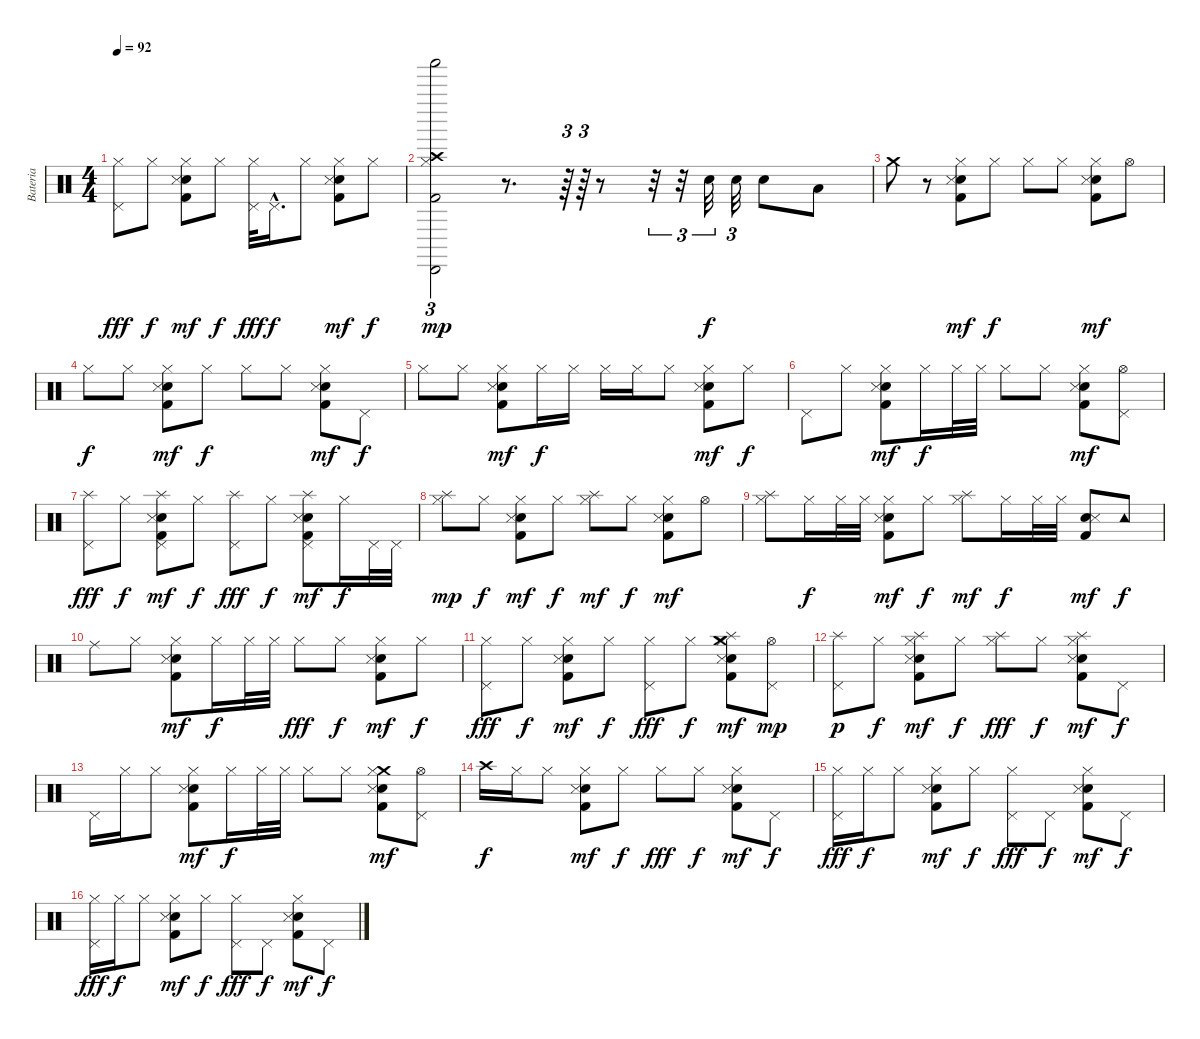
\track ("Bateria" "Bateria") {instrument percussion}
\staff {score}
\articulation defaults
\ts (4 4)
\tempo 92
\clef neutral
\ks c
("Hi-Hat (closed)" "Pedal Hi-Hat (hit)").8{dy fff} "Hi-Hat (closed)".8{dy f} ("Hi-Hat (closed)" "Electric Snare (hit)" "Snare (side stick) 3" "Kick (hit) 2").8{dy mf} "Hi-Hat (closed)".8{dy f} ("Hi-Hat (closed)" "Pedal Hi-Hat (hit)").32{dy fff} "Pedal Hi-Hat (hit)"{hac}.16{d dy f} "Hi-Hat (closed)".8 ("Hi-Hat (closed)" "Electric Snare (hit)" "Snare (side stick) 3" "Kick (hit) 2").8{dy mf} "Hi-Hat (closed)".8{dy f} |
("Hi-Hat (closed)" "Cabasa (hit)" "Shaker (hit)" "Crash high (hit)" "Kick (hit) 2").2{tu (3 2) dy mp} r.8{d} r.64{tu (3 2)} r.64{tu (3 2)} r.8 r.32{tu (3 2)} r.32{tu (3 2)} "Electric Snare (hit)".32{tu (3 2) dy f} "Electric Snare (hit)".32{tu (3 2)} "Electric Snare (hit)".8 "Low Tom (hit)".8 |
"Crash medium (hit)".8 r.8 ("Hi-Hat (closed)" "Electric Snare (hit)" "Snare (side stick) 3" "Kick (hit) 2").8{dy mf} "Hi-Hat (closed)".8{dy f} "Hi-Hat (closed)".8 "Hi-Hat (closed)".8 ("Hi-Hat (closed)" "Electric Snare (hit)" "Snare (side stick) 3" "Kick (hit) 2").8{dy mf} "Hi-Hat (open)".8 |
"Hi-Hat (closed)".8{dy f} "Hi-Hat (closed)".8 ("Hi-Hat (closed)" "Electric Snare (hit)" "Snare (side stick) 3" "Kick (hit) 2").8{dy mf} "Hi-Hat (closed)".8{dy f} "Hi-Hat (closed)".8 "Hi-Hat (closed)".8 ("Hi-Hat (closed)" "Electric Snare (hit)" "Snare (side stick) 3" "Kick (hit) 2").8{dy mf} "Pedal Hi-Hat (hit)".8{dy f} |
"Hi-Hat (closed)".8 "Hi-Hat (closed)".8 ("Hi-Hat (closed)" "Electric Snare (hit)" "Snare (side stick) 3" "Kick (hit) 2").8{dy mf} "Hi-Hat (closed)".16{dy f} "Hi-Hat (closed)".16 "Hi-Hat (closed)".16 "Hi-Hat (closed)".16 "Hi-Hat (closed)".8 ("Hi-Hat (closed)" "Electric Snare (hit)" "Snare (side stick) 3" "Kick (hit) 2").8{dy mf} "Hi-Hat (closed)".8{dy f} |
"Pedal Hi-Hat (hit)".8 "Hi-Hat (closed)".8 ("Hi-Hat (closed)" "Electric Snare (hit)" "Snare (side stick) 3" "Kick (hit) 2").8{dy mf} "Hi-Hat (closed)".16{dy f} "Hi-Hat (closed)".32 "Hi-Hat (closed)".32 "Hi-Hat (closed)".8 "Hi-Hat (closed)".8 ("Hi-Hat (closed)" "Electric Snare (hit)" "Snare (side stick) 3" "Kick (hit) 2").8{dy mf} ("Pedal Hi-Hat (hit)" "Hi-Hat (open)").8 |
("Splash (hit)" "Pedal Hi-Hat (hit)").8{dy fff} "Hi-Hat (closed)".8{dy f} ("Splash (hit)" "Pedal Hi-Hat (hit)" "Electric Snare (hit)" "Snare (side stick) 3" "Kick (hit) 2").8{dy mf} "Hi-Hat (closed)".8{dy f} ("Splash (hit)" "Pedal Hi-Hat (hit)").8{dy fff} "Hi-Hat (closed)".8{dy f} ("Splash (hit)" "Pedal Hi-Hat (hit)" "Electric Snare (hit)" "Snare (side stick) 3" "Kick (hit) 2").8{dy mf} "Hi-Hat (closed)".16{dy f} "Pedal Hi-Hat (hit)".32 "Pedal Hi-Hat (hit)".32 |
("Splash (hit)" "Hi-Hat (closed)").8{dy mp} "Hi-Hat (closed)".8{dy f} ("Hi-Hat (closed)" "Electric Snare (hit)" "Snare (side stick) 3" "Kick (hit) 2").8{dy mf} "Hi-Hat (closed)".8{dy f} ("Splash (hit)" "Hi-Hat (closed)").8{dy mf} "Hi-Hat (closed)".8{dy f} ("Hi-Hat (closed)" "Electric Snare (hit)" "Snare (side stick) 3" "Kick (hit) 2").8{dy mf} "Hi-Hat (open)".8 |
("Splash (hit)" "Hi-Hat (closed)").8 "Hi-Hat (closed)".16{dy f} "Hi-Hat (closed)".32 "Hi-Hat (closed)".32 ("Hi-Hat (closed)" "Electric Snare (hit)" "Snare (side stick) 3" "Kick (hit) 2").8{dy mf} "Hi-Hat (closed)".8{dy f} ("Splash (hit)" "Hi-Hat (closed)").8{dy mf} "Hi-Hat (closed)".16{dy f} "Hi-Hat (closed)".32 "Hi-Hat (closed)".32 ("Electric Snare (hit)" "Snare (side stick) 3" "Kick (hit) 2").8{dy mf} "Tambourine (hit)".8{dy f} |
"Ride (middle)".8 "Hi-Hat (closed)".8 ("Hi-Hat (closed)" "Electric Snare (hit)" "Snare (side stick) 3" "Kick (hit) 2").8{dy mf} "Hi-Hat (closed)".16{dy f} "Hi-Hat (closed)".32 "Hi-Hat (closed)".32 "Hi-Hat (closed)".8{dy fff} "Hi-Hat (closed)".8{dy f} ("Hi-Hat (closed)" "Electric Snare (hit)" "Snare (side stick) 3" "Kick (hit) 2").8{dy mf} "Hi-Hat (closed)".8{dy f} |
("Hi-Hat (closed)" "Pedal Hi-Hat (hit)").8{dy fff} "Hi-Hat (closed)".8{dy f} ("Hi-Hat (closed)" "Electric Snare (hit)" "Snare (side stick) 3" "Kick (hit) 2").8{dy mf} "Hi-Hat (closed)".8{dy f} ("Hi-Hat (closed)" "Pedal Hi-Hat (hit)").8{dy fff} "Hi-Hat (closed)".8{dy f} ("Crash medium (hit)" "Hi-Hat (closed)" "Splash (hit)" "Electric Snare (hit)" "Snare (side stick) 3" "Kick (hit) 2").8{dy mf} ("Pedal Hi-Hat (hit)" "Hi-Hat (open)").8{dy mp} |
("Splash (hit)" "Pedal Hi-Hat (hit)").8{dy p} "Hi-Hat (closed)".8{dy f} ("Splash (hit)" "Hi-Hat (closed)" "Electric Snare (hit)" "Snare (side stick) 3" "Kick (hit) 2").8{dy mf} "Hi-Hat (closed)".8{dy f} ("Splash (hit)" "Hi-Hat (closed)").8{dy fff} "Hi-Hat (closed)".8{dy f} ("Splash (hit)" "Hi-Hat (closed)" "Electric Snare (hit)" "Snare (side stick) 3" "Kick (hit) 2").8{dy mf} "Pedal Hi-Hat (hit)".8{dy f} |
"Pedal Hi-Hat (hit)".16 "Hi-Hat (closed)".16 "Hi-Hat (closed)".8 ("Hi-Hat (closed)" "Electric Snare (hit)" "Snare (side stick) 3" "Kick (hit) 2").8{dy mf} "Hi-Hat (closed)".16{dy f} "Hi-Hat (closed)".32 "Hi-Hat (closed)".32 "Hi-Hat (closed)".8 "Hi-Hat (closed)".8 ("Crash medium (hit)" "Hi-Hat (closed)" "Electric Snare (hit)" "Snare (side stick) 3" "Kick (hit) 2").8{dy mf} ("Pedal Hi-Hat (hit)" "Hi-Hat (open)").8 |
"Crash high (hit)".16{dy f} "Hi-Hat (closed)".16 "Hi-Hat (closed)".8 ("Hi-Hat (closed)" "Electric Snare (hit)" "Snare (side stick) 3" "Kick (hit) 2").8{dy mf} "Hi-Hat (closed)".8{dy f} "Hi-Hat (closed)".8{dy fff} "Hi-Hat (closed)".8{dy f} ("Hi-Hat (closed)" "Electric Snare (hit)" "Snare (side stick) 3" "Kick (hit) 2").8{dy mf} "Pedal Hi-Hat (hit)".8{dy f} |
("Hi-Hat (closed)" "Pedal Hi-Hat (hit)").16{dy fff} "Hi-Hat (closed)".16{dy f} "Hi-Hat (closed)".8 ("Hi-Hat (closed)" "Electric Snare (hit)" "Snare (side stick) 3" "Kick (hit) 2").8{dy mf} "Hi-Hat (closed)".8{dy f} ("Hi-Hat (closed)" "Pedal Hi-Hat (hit)").8{dy fff} "Pedal Hi-Hat (hit)".8{dy f} ("Hi-Hat (closed)" "Electric Snare (hit)" "Snare (side stick) 3" "Kick (hit) 2").8{dy mf} "Pedal Hi-Hat (hit)".8{dy f} |
("Hi-Hat (closed)" "Pedal Hi-Hat (hit)").16{dy fff} "Hi-Hat (closed)".16{dy f} "Hi-Hat (closed)".8 ("Hi-Hat (closed)" "Electric Snare (hit)" "Snare (side stick) 3" "Kick (hit) 2").8{dy mf} "Hi-Hat (closed)".8{dy f} ("Hi-Hat (closed)" "Pedal Hi-Hat (hit)").8{dy fff} "Pedal Hi-Hat (hit)".8{dy f} ("Hi-Hat (closed)" "Electric Snare (hit)" "Snare (side stick) 3" "Kick (hit) 2").8{dy mf} "Pedal Hi-Hat (hit)".8{dy f}
